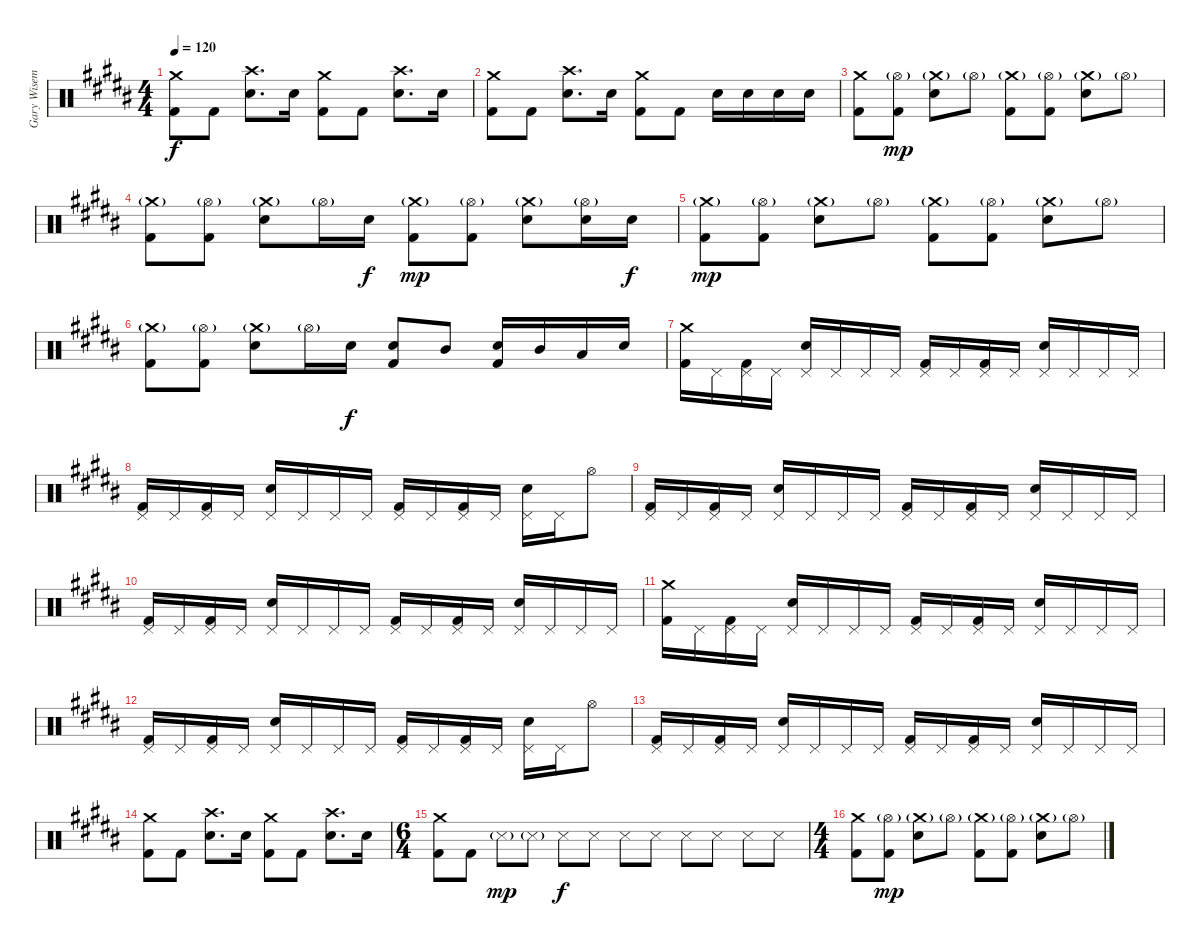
\track ("Gary Wiseman - Drums" "Gary Wisem") {instrument percussion}
\staff {score}
\articulation defaults
\ts (4 4)
\tempo 120
\clef neutral
\ks b
("Crash medium (hit)" "Kick (hit) 2").8{dy f} "Kick (hit) 2".8 ("Crash high (hit)" "Electric Snare (hit)").8{d} "Electric Snare (hit)".16 ("Crash medium (hit)" "Kick (hit) 2").8 "Kick (hit) 2".8 ("Crash high (hit)" "Electric Snare (hit)").8{d} "Electric Snare (hit)".16 |
("Crash medium (hit)" "Kick (hit) 2").8 "Kick (hit) 2".8 ("Crash high (hit)" "Electric Snare (hit)").8{d} "Electric Snare (hit)".16 ("Crash medium (hit)" "Kick (hit) 2").8 "Kick (hit) 2".8 "Electric Snare (hit)".16 "Electric Snare (hit)".16 "Electric Snare (hit)".16 "Electric Snare (hit)".16 |
("Crash medium (hit)" "Kick (hit) 2").8 ("Hi-Hat (open)"{g} "Kick (hit) 2").8{dy mp} ("Crash medium (hit)"{g} "Electric Snare (hit)").8 "Hi-Hat (open)"{g}.8 ("Crash medium (hit)"{g} "Kick (hit) 2").8 ("Hi-Hat (open)"{g} "Kick (hit) 2").8 ("Crash medium (hit)"{g} "Electric Snare (hit)").8 "Hi-Hat (open)"{g}.8 |
("Crash medium (hit)"{g} "Kick (hit) 2").8 ("Hi-Hat (open)"{g} "Kick (hit) 2").8 ("Crash medium (hit)"{g} "Electric Snare (hit)").8 "Hi-Hat (open)"{g}.16 "Electric Snare (hit)".16{dy f} ("Crash medium (hit)"{g} "Kick (hit) 2").8{dy mp} ("Hi-Hat (open)"{g} "Kick (hit) 2").8 ("Crash medium (hit)"{g} "Electric Snare (hit)").8 ("Hi-Hat (open)"{g} "Electric Snare (hit)").16 "Electric Snare (hit)".16{dy f} |
("Crash medium (hit)"{g} "Kick (hit) 2").8{dy mp} ("Hi-Hat (open)"{g} "Kick (hit) 2").8 ("Crash medium (hit)"{g} "Electric Snare (hit)").8 "Hi-Hat (open)"{g}.8 ("Crash medium (hit)"{g} "Kick (hit) 2").8 ("Hi-Hat (open)"{g} "Kick (hit) 2").8 ("Crash medium (hit)"{g} "Electric Snare (hit)").8 "Hi-Hat (open)"{g}.8 |
("Crash medium (hit)"{g} "Kick (hit) 2").8 ("Hi-Hat (open)"{g} "Kick (hit) 2").8 ("Crash medium (hit)"{g} "Electric Snare (hit)").8 "Hi-Hat (open)"{g}.16 "Electric Snare (hit)".16{dy f} ("Electric Snare (hit)" "Kick (hit) 2").8 "Mid Tom (hit)".8 ("Electric Snare (hit)" "Kick (hit) 2").16 "Mid Tom (hit)".16 "Low Tom (hit)".16 "Electric Snare (hit)".16 |
("Crash medium (hit)" "Kick (hit) 2").16 "Pedal Hi-Hat (hit)".16 ("Pedal Hi-Hat (hit)" "Kick (hit) 2").16 "Pedal Hi-Hat (hit)".16 ("Pedal Hi-Hat (hit)" "Electric Snare (hit)").16 "Pedal Hi-Hat (hit)".16 "Pedal Hi-Hat (hit)".16 "Pedal Hi-Hat (hit)".16 ("Pedal Hi-Hat (hit)" "Kick (hit) 2").16 "Pedal Hi-Hat (hit)".16 ("Pedal Hi-Hat (hit)" "Kick (hit) 2").16 "Pedal Hi-Hat (hit)".16 ("Pedal Hi-Hat (hit)" "Electric Snare (hit)").16 "Pedal Hi-Hat (hit)".16 "Pedal Hi-Hat (hit)".16 "Pedal Hi-Hat (hit)".16 |
("Pedal Hi-Hat (hit)" "Kick (hit) 2").16 "Pedal Hi-Hat (hit)".16 ("Pedal Hi-Hat (hit)" "Kick (hit) 2").16 "Pedal Hi-Hat (hit)".16 ("Pedal Hi-Hat (hit)" "Electric Snare (hit)").16 "Pedal Hi-Hat (hit)".16 "Pedal Hi-Hat (hit)".16 "Pedal Hi-Hat (hit)".16 ("Pedal Hi-Hat (hit)" "Kick (hit) 2").16 "Pedal Hi-Hat (hit)".16 ("Pedal Hi-Hat (hit)" "Kick (hit) 2").16 "Pedal Hi-Hat (hit)".16 ("Pedal Hi-Hat (hit)" "Electric Snare (hit)").16 "Pedal Hi-Hat (hit)".16 "Hi-Hat (open)".8 |
("Pedal Hi-Hat (hit)" "Kick (hit) 2").16 "Pedal Hi-Hat (hit)".16 ("Pedal Hi-Hat (hit)" "Kick (hit) 2").16 "Pedal Hi-Hat (hit)".16 ("Pedal Hi-Hat (hit)" "Electric Snare (hit)").16 "Pedal Hi-Hat (hit)".16 "Pedal Hi-Hat (hit)".16 "Pedal Hi-Hat (hit)".16 ("Pedal Hi-Hat (hit)" "Kick (hit) 2").16 "Pedal Hi-Hat (hit)".16 ("Pedal Hi-Hat (hit)" "Kick (hit) 2").16 "Pedal Hi-Hat (hit)".16 ("Pedal Hi-Hat (hit)" "Electric Snare (hit)").16 "Pedal Hi-Hat (hit)".16 "Pedal Hi-Hat (hit)".16 "Pedal Hi-Hat (hit)".16 |
("Pedal Hi-Hat (hit)" "Kick (hit) 2").16 "Pedal Hi-Hat (hit)".16 ("Pedal Hi-Hat (hit)" "Kick (hit) 2").16 "Pedal Hi-Hat (hit)".16 ("Pedal Hi-Hat (hit)" "Electric Snare (hit)").16 "Pedal Hi-Hat (hit)".16 "Pedal Hi-Hat (hit)".16 "Pedal Hi-Hat (hit)".16 ("Pedal Hi-Hat (hit)" "Kick (hit) 2").16 "Pedal Hi-Hat (hit)".16 ("Pedal Hi-Hat (hit)" "Kick (hit) 2").16 "Pedal Hi-Hat (hit)".16 ("Pedal Hi-Hat (hit)" "Electric Snare (hit)").16 "Pedal Hi-Hat (hit)".16 "Pedal Hi-Hat (hit)".16 "Pedal Hi-Hat (hit)".16 |
("Crash medium (hit)" "Kick (hit) 2").16 "Pedal Hi-Hat (hit)".16 ("Pedal Hi-Hat (hit)" "Kick (hit) 2").16 "Pedal Hi-Hat (hit)".16 ("Pedal Hi-Hat (hit)" "Electric Snare (hit)").16 "Pedal Hi-Hat (hit)".16 "Pedal Hi-Hat (hit)".16 "Pedal Hi-Hat (hit)".16 ("Pedal Hi-Hat (hit)" "Kick (hit) 2").16 "Pedal Hi-Hat (hit)".16 ("Pedal Hi-Hat (hit)" "Kick (hit) 2").16 "Pedal Hi-Hat (hit)".16 ("Pedal Hi-Hat (hit)" "Electric Snare (hit)").16 "Pedal Hi-Hat (hit)".16 "Pedal Hi-Hat (hit)".16 "Pedal Hi-Hat (hit)".16 |
("Pedal Hi-Hat (hit)" "Kick (hit) 2").16 "Pedal Hi-Hat (hit)".16 ("Pedal Hi-Hat (hit)" "Kick (hit) 2").16 "Pedal Hi-Hat (hit)".16 ("Pedal Hi-Hat (hit)" "Electric Snare (hit)").16 "Pedal Hi-Hat (hit)".16 "Pedal Hi-Hat (hit)".16 "Pedal Hi-Hat (hit)".16 ("Pedal Hi-Hat (hit)" "Kick (hit) 2").16 "Pedal Hi-Hat (hit)".16 ("Pedal Hi-Hat (hit)" "Kick (hit) 2").16 "Pedal Hi-Hat (hit)".16 ("Pedal Hi-Hat (hit)" "Electric Snare (hit)").16 "Pedal Hi-Hat (hit)".16 "Hi-Hat (open)".8 |
("Pedal Hi-Hat (hit)" "Kick (hit) 2").16 "Pedal Hi-Hat (hit)".16 ("Pedal Hi-Hat (hit)" "Kick (hit) 2").16 "Pedal Hi-Hat (hit)".16 ("Pedal Hi-Hat (hit)" "Electric Snare (hit)").16 "Pedal Hi-Hat (hit)".16 "Pedal Hi-Hat (hit)".16 "Pedal Hi-Hat (hit)".16 ("Pedal Hi-Hat (hit)" "Kick (hit) 2").16 "Pedal Hi-Hat (hit)".16 ("Pedal Hi-Hat (hit)" "Kick (hit) 2").16 "Pedal Hi-Hat (hit)".16 ("Pedal Hi-Hat (hit)" "Electric Snare (hit)").16 "Pedal Hi-Hat (hit)".16 "Pedal Hi-Hat (hit)".16 "Pedal Hi-Hat (hit)".16 |
("Crash medium (hit)" "Kick (hit) 2").8 "Kick (hit) 2".8 ("Crash high (hit)" "Electric Snare (hit)").8{d} "Electric Snare (hit)".16 ("Crash medium (hit)" "Kick (hit) 2").8 "Kick (hit) 2".8 ("Crash high (hit)" "Electric Snare (hit)").8{d} "Electric Snare (hit)".16 |
\ts (6 4)
("Crash medium (hit)" "Kick (hit) 2").8 "Kick (hit) 2".8 "Metronome (hit)"{g}.8{dy mp} "Metronome (hit)"{g}.8 "Metronome (hit)".8{dy f} "Metronome (hit)".8 "Metronome (hit)".8 "Metronome (hit)".8 "Metronome (hit)".8 "Metronome (hit)".8 "Metronome (hit)".8 "Metronome (hit)".8 |
\ts (4 4)
("Crash medium (hit)" "Kick (hit) 2").8 ("Hi-Hat (open)"{g} "Kick (hit) 2").8{dy mp} ("Crash medium (hit)"{g} "Electric Snare (hit)").8 "Hi-Hat (open)"{g}.8 ("Crash medium (hit)"{g} "Kick (hit) 2").8 ("Hi-Hat (open)"{g} "Kick (hit) 2").8 ("Crash medium (hit)"{g} "Electric Snare (hit)").8 "Hi-Hat (open)"{g}.8
